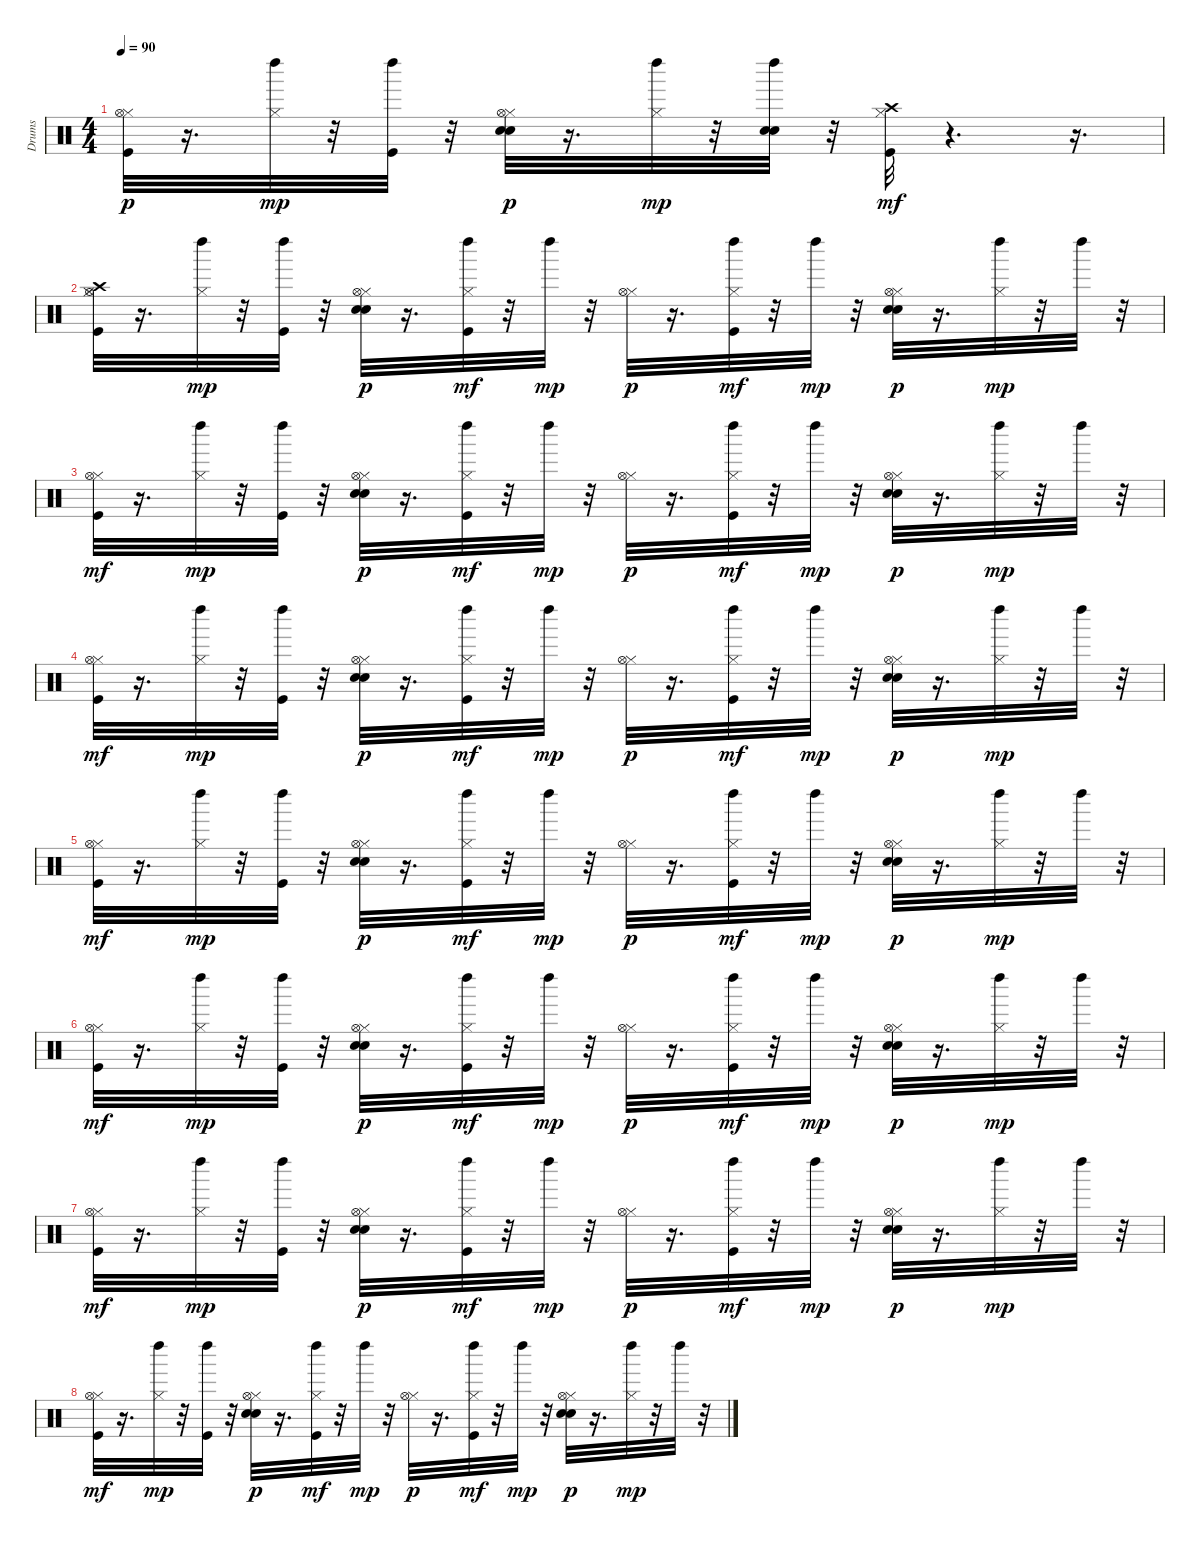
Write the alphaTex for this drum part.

\track ("Drums" "Drums") {instrument percussion}
\staff {score}
\articulation defaults
\ts (4 4)
\tempo 90
\clef neutral
\ks c
("Kick (hit)" "Hi-Hat (closed)" "Hi-Hat (open)").32{dy p} r.16{d} ("Hi-Hat (closed)" "Left Maraca (hit)").32{dy mp} r.32 ("Kick (hit)" "Left Maraca (hit)").32 r.32 ("Snare (hit) 2" "Electric Snare (hit)" "Hi-Hat (closed)" "Hi-Hat (open)").32{dy p} r.16{d} ("Hi-Hat (closed)" "Left Maraca (hit)").32{dy mp} r.32 ("Snare (hit) 2" "Electric Snare (hit)" "Left Maraca (hit)").32 r.32 ("Kick (hit)" "Hi-Hat (closed)" "Crash high (hit)").32{dy mf} r.4{d} r.16{d} |
("Crash high (hit)" "Hi-Hat (closed)" "Hi-Hat (open)" "Kick (hit)").32 r.16{d} ("Hi-Hat (closed)" "Left Maraca (hit)").32{dy mp} r.32 ("Kick (hit)" "Left Maraca (hit)").32 r.32 ("Snare (hit) 2" "Electric Snare (hit)" "Hi-Hat (closed)" "Hi-Hat (open)").32{dy p} r.16{d} ("Hi-Hat (closed)" "Left Maraca (hit)" "Kick (hit)").32{dy mf} r.32 "Left Maraca (hit)".32{dy mp} r.32 ("Hi-Hat (closed)" "Hi-Hat (open)").32{dy p} r.16{d} ("Hi-Hat (closed)" "Left Maraca (hit)" "Kick (hit)").32{dy mf} r.32 "Left Maraca (hit)".32{dy mp} r.32 ("Snare (hit) 2" "Electric Snare (hit)" "Hi-Hat (closed)" "Hi-Hat (open)").32{dy p} r.16{d} ("Hi-Hat (closed)" "Left Maraca (hit)").32{dy mp} r.32 "Left Maraca (hit)".32 r.32 |
("Hi-Hat (closed)" "Hi-Hat (open)" "Kick (hit)").32{dy mf} r.16{d} ("Hi-Hat (closed)" "Left Maraca (hit)").32{dy mp} r.32 ("Kick (hit)" "Left Maraca (hit)").32 r.32 ("Snare (hit) 2" "Electric Snare (hit)" "Hi-Hat (closed)" "Hi-Hat (open)").32{dy p} r.16{d} ("Hi-Hat (closed)" "Left Maraca (hit)" "Kick (hit)").32{dy mf} r.32 "Left Maraca (hit)".32{dy mp} r.32 ("Hi-Hat (closed)" "Hi-Hat (open)").32{dy p} r.16{d} ("Hi-Hat (closed)" "Left Maraca (hit)" "Kick (hit)").32{dy mf} r.32 "Left Maraca (hit)".32{dy mp} r.32 ("Snare (hit) 2" "Electric Snare (hit)" "Hi-Hat (closed)" "Hi-Hat (open)").32{dy p} r.16{d} ("Hi-Hat (closed)" "Left Maraca (hit)").32{dy mp} r.32 "Left Maraca (hit)".32 r.32 |
("Hi-Hat (closed)" "Hi-Hat (open)" "Kick (hit)").32{dy mf} r.16{d} ("Hi-Hat (closed)" "Left Maraca (hit)").32{dy mp} r.32 ("Kick (hit)" "Left Maraca (hit)").32 r.32 ("Snare (hit) 2" "Electric Snare (hit)" "Hi-Hat (closed)" "Hi-Hat (open)").32{dy p} r.16{d} ("Hi-Hat (closed)" "Left Maraca (hit)" "Kick (hit)").32{dy mf} r.32 "Left Maraca (hit)".32{dy mp} r.32 ("Hi-Hat (closed)" "Hi-Hat (open)").32{dy p} r.16{d} ("Hi-Hat (closed)" "Left Maraca (hit)" "Kick (hit)").32{dy mf} r.32 "Left Maraca (hit)".32{dy mp} r.32 ("Snare (hit) 2" "Electric Snare (hit)" "Hi-Hat (closed)" "Hi-Hat (open)").32{dy p} r.16{d} ("Hi-Hat (closed)" "Left Maraca (hit)").32{dy mp} r.32 "Left Maraca (hit)".32 r.32 |
("Hi-Hat (closed)" "Hi-Hat (open)" "Kick (hit)").32{dy mf} r.16{d} ("Hi-Hat (closed)" "Left Maraca (hit)").32{dy mp} r.32 ("Kick (hit)" "Left Maraca (hit)").32 r.32 ("Snare (hit) 2" "Electric Snare (hit)" "Hi-Hat (closed)" "Hi-Hat (open)").32{dy p} r.16{d} ("Hi-Hat (closed)" "Left Maraca (hit)" "Kick (hit)").32{dy mf} r.32 "Left Maraca (hit)".32{dy mp} r.32 ("Hi-Hat (closed)" "Hi-Hat (open)").32{dy p} r.16{d} ("Hi-Hat (closed)" "Left Maraca (hit)" "Kick (hit)").32{dy mf} r.32 "Left Maraca (hit)".32{dy mp} r.32 ("Snare (hit) 2" "Electric Snare (hit)" "Hi-Hat (closed)" "Hi-Hat (open)").32{dy p} r.16{d} ("Hi-Hat (closed)" "Left Maraca (hit)").32{dy mp} r.32 "Left Maraca (hit)".32 r.32 |
("Hi-Hat (closed)" "Hi-Hat (open)" "Kick (hit)").32{dy mf} r.16{d} ("Hi-Hat (closed)" "Left Maraca (hit)").32{dy mp} r.32 ("Kick (hit)" "Left Maraca (hit)").32 r.32 ("Snare (hit) 2" "Electric Snare (hit)" "Hi-Hat (closed)" "Hi-Hat (open)").32{dy p} r.16{d} ("Hi-Hat (closed)" "Left Maraca (hit)" "Kick (hit)").32{dy mf} r.32 "Left Maraca (hit)".32{dy mp} r.32 ("Hi-Hat (closed)" "Hi-Hat (open)").32{dy p} r.16{d} ("Hi-Hat (closed)" "Left Maraca (hit)" "Kick (hit)").32{dy mf} r.32 "Left Maraca (hit)".32{dy mp} r.32 ("Snare (hit) 2" "Electric Snare (hit)" "Hi-Hat (closed)" "Hi-Hat (open)").32{dy p} r.16{d} ("Hi-Hat (closed)" "Left Maraca (hit)").32{dy mp} r.32 "Left Maraca (hit)".32 r.32 |
("Hi-Hat (closed)" "Hi-Hat (open)" "Kick (hit)").32{dy mf} r.16{d} ("Hi-Hat (closed)" "Left Maraca (hit)").32{dy mp} r.32 ("Kick (hit)" "Left Maraca (hit)").32 r.32 ("Snare (hit) 2" "Electric Snare (hit)" "Hi-Hat (closed)" "Hi-Hat (open)").32{dy p} r.16{d} ("Hi-Hat (closed)" "Left Maraca (hit)" "Kick (hit)").32{dy mf} r.32 "Left Maraca (hit)".32{dy mp} r.32 ("Hi-Hat (closed)" "Hi-Hat (open)").32{dy p} r.16{d} ("Hi-Hat (closed)" "Left Maraca (hit)" "Kick (hit)").32{dy mf} r.32 "Left Maraca (hit)".32{dy mp} r.32 ("Snare (hit) 2" "Electric Snare (hit)" "Hi-Hat (closed)" "Hi-Hat (open)").32{dy p} r.16{d} ("Hi-Hat (closed)" "Left Maraca (hit)").32{dy mp} r.32 "Left Maraca (hit)".32 r.32 |
("Hi-Hat (closed)" "Hi-Hat (open)" "Kick (hit)").32{dy mf} r.16{d} ("Hi-Hat (closed)" "Left Maraca (hit)").32{dy mp} r.32 ("Kick (hit)" "Left Maraca (hit)").32 r.32 ("Snare (hit) 2" "Electric Snare (hit)" "Hi-Hat (closed)" "Hi-Hat (open)").32{dy p} r.16{d} ("Hi-Hat (closed)" "Left Maraca (hit)" "Kick (hit)").32{dy mf} r.32 "Left Maraca (hit)".32{dy mp} r.32 ("Hi-Hat (closed)" "Hi-Hat (open)").32{dy p} r.16{d} ("Hi-Hat (closed)" "Left Maraca (hit)" "Kick (hit)").32{dy mf} r.32 "Left Maraca (hit)".32{dy mp} r.32 ("Snare (hit) 2" "Electric Snare (hit)" "Hi-Hat (closed)" "Hi-Hat (open)").32{dy p} r.16{d} ("Hi-Hat (closed)" "Left Maraca (hit)").32{dy mp} r.32 "Left Maraca (hit)".32 r.32
